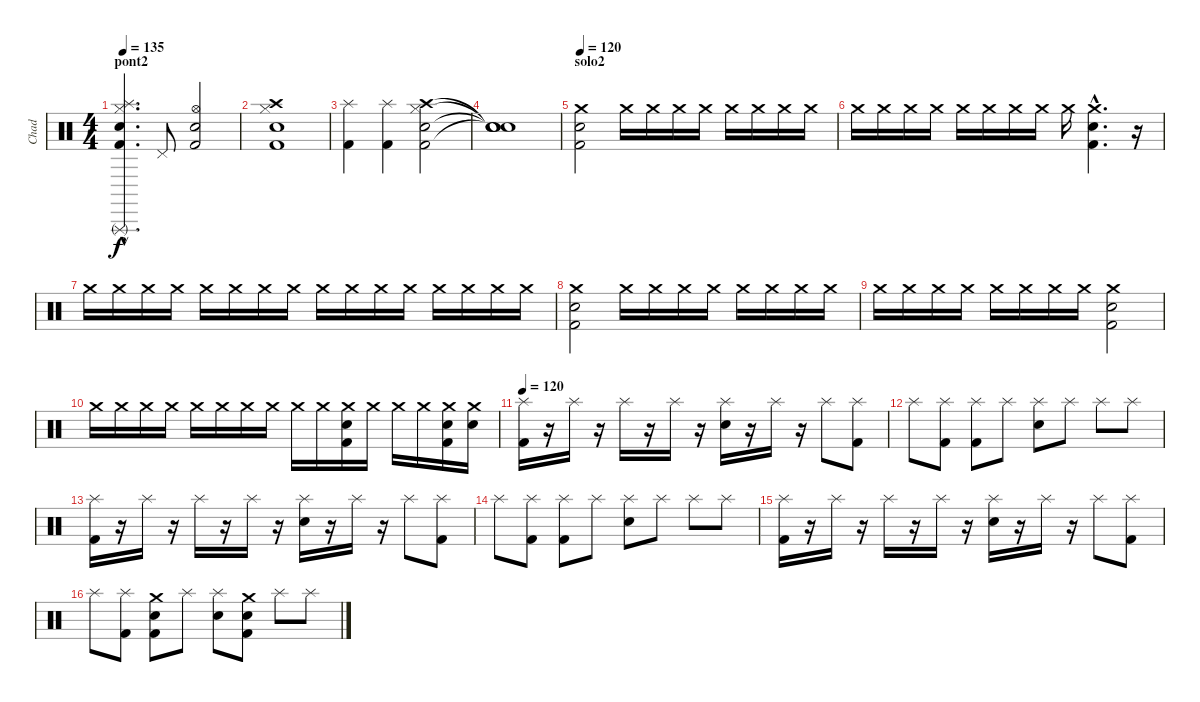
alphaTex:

\track ("Chad" "Chad") {instrument percussion}
\staff {score}
\articulation defaults
\ts (4 4)
\section ("" "pont2")
\tempo 135
\clef neutral
\ks c
("Triangle (rnute)"{hac} "Splash (hit)"{hac} "Snare (hit) 2"{hac} "Hi-Hat (closed)"{hac} "Kick (hit) 2"{hac}).4{d dy f} "Pedal Hi-Hat (hit)".8 ("Hi-Hat (open)" "Electric Snare (hit)" "Kick (hit) 2").2 |
("Crash high (hit)" "Hi-Hat (closed)" "Electric Snare (hit)" "Kick (hit) 2").1 |
("Splash (hit)" "Kick (hit) 2").4 ("Splash (hit)" "Kick (hit) 2").4 ("Crash high (hit)" "Hi-Hat (closed)" "Electric Snare (hit)" "Kick (hit) 2").2 |
("Snare (hit)"{t} "Snare (hit)"{t} "Snare (hit)"{t} "Snare (hit)"{t}).1 |
\section ("" "solo2")
\tempo 120
("Crash medium (hit)" "Snare (hit) 2" "Kick (hit) 2").2{volume 5} "Crash medium (hit)".16{volume 14} "Crash medium (hit)".16 "Crash medium (hit)".16 "Crash medium (hit)".16 "Crash medium (hit)".16 "Crash medium (hit)".16 "Crash medium (hit)".16 "Crash medium (hit)".16 |
"Crash medium (hit)".16 "Crash medium (hit)".16 "Crash medium (hit)".16 "Crash medium (hit)".16 "Crash medium (hit)".16 "Crash medium (hit)".16 "Crash medium (hit)".16 "Crash medium (hit)".16 "Crash medium (hit)".16{volume 4} ("Crash medium (hit)"{hac} "Electric Snare (hit)"{hac} "Kick (hit) 2"{hac}).4{d} r.16 |
"Crash medium (hit)".16{volume 14} "Crash medium (hit)".16 "Crash medium (hit)".16 "Crash medium (hit)".16 "Crash medium (hit)".16 "Crash medium (hit)".16 "Crash medium (hit)".16 "Crash medium (hit)".16 "Crash medium (hit)".16 "Crash medium (hit)".16 "Crash medium (hit)".16 "Crash medium (hit)".16 "Crash medium (hit)".16 "Crash medium (hit)".16 "Crash medium (hit)".16 "Crash medium (hit)".16 |
("Crash medium (hit)" "Snare (hit) 2" "Kick (hit) 2").2{volume 5} "Crash medium (hit)".16{volume 14} "Crash medium (hit)".16 "Crash medium (hit)".16 "Crash medium (hit)".16 "Crash medium (hit)".16 "Crash medium (hit)".16 "Crash medium (hit)".16 "Crash medium (hit)".16 |
"Crash medium (hit)".16 "Crash medium (hit)".16 "Crash medium (hit)".16 "Crash medium (hit)".16 "Crash medium (hit)".16 "Crash medium (hit)".16 "Crash medium (hit)".16 "Crash medium (hit)".16 ("Crash medium (hit)" "Snare (hit) 2" "Kick (hit) 2").2{volume 4} |
"Crash medium (hit)".16{volume 14} "Crash medium (hit)".16 "Crash medium (hit)".16 "Crash medium (hit)".16 "Crash medium (hit)".16 "Crash medium (hit)".16 "Crash medium (hit)".16 "Crash medium (hit)".16 "Crash medium (hit)".16 "Crash medium (hit)".16 ("Crash medium (hit)" "Electric Snare (hit)" "Kick (hit) 2").16 "Crash medium (hit)".16 "Crash medium (hit)".16 "Crash medium (hit)".16 ("Crash medium (hit)" "Electric Snare (hit)" "Kick (hit) 2").16 ("Crash medium (hit)" "Snare (hit) 2").16 |
\tempo 120
("Splash (hit)" "Kick (hit) 2").16 r.16 "Splash (hit)".16 r.16 "Splash (hit)".16 r.16 "Splash (hit)".16 r.16 ("Splash (hit)" "Electric Snare (hit)").16 r.16 "Splash (hit)".16 r.16 "Splash (hit)".8 ("Splash (hit)" "Kick (hit) 2").8 |
"Splash (hit)".8 ("Splash (hit)" "Kick (hit) 2").8 ("Splash (hit)" "Kick (hit) 2").8 "Splash (hit)".8 ("Splash (hit)" "Electric Snare (hit)").8 "Splash (hit)".8 "Splash (hit)".8 "Splash (hit)".8 |
("Splash (hit)" "Kick (hit) 2").16 r.16 "Splash (hit)".16 r.16 "Splash (hit)".16 r.16 "Splash (hit)".16 r.16 ("Splash (hit)" "Electric Snare (hit)").16 r.16 "Splash (hit)".16 r.16 "Splash (hit)".8 ("Splash (hit)" "Kick (hit) 2").8 |
"Splash (hit)".8 ("Splash (hit)" "Kick (hit) 2").8 ("Splash (hit)" "Kick (hit) 2").8 "Splash (hit)".8 ("Splash (hit)" "Electric Snare (hit)").8 "Splash (hit)".8 "Splash (hit)".8 "Splash (hit)".8 |
("Splash (hit)" "Kick (hit) 2").16 r.16 "Splash (hit)".16 r.16 "Splash (hit)".16 r.16 "Splash (hit)".16 r.16 ("Splash (hit)" "Electric Snare (hit)").16 r.16 "Splash (hit)".16 r.16 "Splash (hit)".8 ("Splash (hit)" "Kick (hit) 2").8 |
"Splash (hit)".8 ("Splash (hit)" "Kick (hit) 2").8 ("Crash medium (hit)" "Electric Snare (hit)" "Kick (hit) 2").8 "Splash (hit)".8 ("Splash (hit)" "Electric Snare (hit)").8 ("Crash medium (hit)" "Electric Snare (hit)" "Kick (hit) 2").8 "Splash (hit)".8 "Splash (hit)".8
